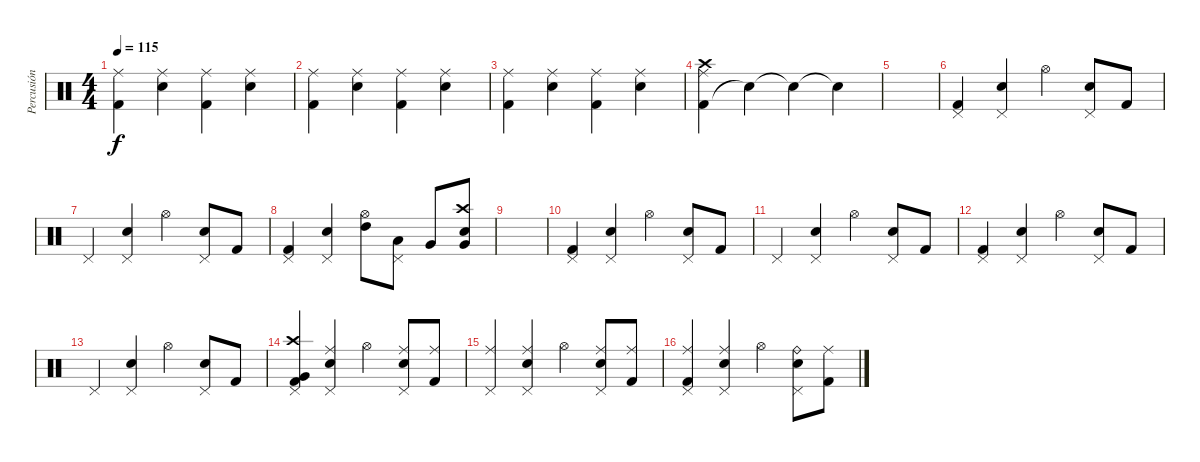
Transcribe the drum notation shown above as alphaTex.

\track ("Percusión" "Percusión") {instrument percussion}
\staff {score}
\articulation defaults
\ts (4 4)
\tempo 115
\clef neutral
\ks c
("Kick (hit) 2" "Ride (middle)").4{dy f} ("Snare (hit) 2" "Ride (middle)").4 ("Kick (hit) 2" "Ride (middle)").4 ("Snare (hit) 2" "Ride (middle)").4 |
("Kick (hit) 2" "Ride (middle)").4 ("Snare (hit) 2" "Ride (middle)").4 ("Kick (hit) 2" "Ride (middle)").4 ("Snare (hit) 2" "Ride (middle)").4 |
("Kick (hit) 2" "Ride (middle)").4 ("Snare (hit) 2" "Ride (middle)").4 ("Kick (hit) 2" "Ride (middle)").4 ("Snare (hit) 2" "Ride (middle)").4 |
("Kick (hit) 2" "Ride (middle)" "Crash high (hit)").4 "Snare (hit)"{t}.4 "Snare (hit)"{t}.4 "Snare (hit)"{t}.4 |
|
("Kick (hit) 2" "Pedal Hi-Hat (hit)").4 ("Snare (hit) 2" "Pedal Hi-Hat (hit)").4 "Hi-Hat (open)".4 ("Snare (hit) 2" "Pedal Hi-Hat (hit)").8 "Kick (hit) 2".8 |
"Pedal Hi-Hat (hit)".4 ("Snare (hit) 2" "Pedal Hi-Hat (hit)").4 "Hi-Hat (open)".4 ("Snare (hit) 2" "Pedal Hi-Hat (hit)").8 "Kick (hit) 2".8 |
("Kick (hit) 2" "Pedal Hi-Hat (hit)").4 ("Snare (hit) 2" "Pedal Hi-Hat (hit)").4 ("High Tom (hit)" "Hi-Hat (open)").8 ("Low Tom (hit)" "Pedal Hi-Hat (hit)").8 "Very Low Tom (hit)".8 ("Crash high (hit)" "Very Low Tom (hit)" "Snare (hit) 2").8 |
|
("Kick (hit) 2" "Pedal Hi-Hat (hit)").4 ("Snare (hit) 2" "Pedal Hi-Hat (hit)").4 "Hi-Hat (open)".4 ("Snare (hit) 2" "Pedal Hi-Hat (hit)").8 "Kick (hit) 2".8 |
"Pedal Hi-Hat (hit)".4 ("Snare (hit) 2" "Pedal Hi-Hat (hit)").4 "Hi-Hat (open)".4 ("Snare (hit) 2" "Pedal Hi-Hat (hit)").8 "Kick (hit) 2".8 |
("Kick (hit) 2" "Pedal Hi-Hat (hit)").4 ("Snare (hit) 2" "Pedal Hi-Hat (hit)").4 "Hi-Hat (open)".4 ("Snare (hit) 2" "Pedal Hi-Hat (hit)").8 "Kick (hit) 2".8 |
"Pedal Hi-Hat (hit)".4 ("Snare (hit) 2" "Pedal Hi-Hat (hit)").4 "Hi-Hat (open)".4 ("Snare (hit) 2" "Pedal Hi-Hat (hit)").8 "Kick (hit) 2".8 |
("Kick (hit) 2" "Very Low Tom (hit)" "Pedal Hi-Hat (hit)" "Crash high (hit)").4 ("Snare (hit) 2" "Pedal Hi-Hat (hit)" "Ride (middle)").4 "Hi-Hat (open)".4 ("Snare (hit) 2" "Pedal Hi-Hat (hit)" "Ride (middle)").8 ("Kick (hit) 2" "Ride (middle)").8 |
("Pedal Hi-Hat (hit)" "Ride (middle)").4 ("Snare (hit) 2" "Pedal Hi-Hat (hit)" "Ride (middle)").4 "Hi-Hat (open)".4 ("Snare (hit) 2" "Pedal Hi-Hat (hit)" "Ride (middle)").8 ("Kick (hit) 2" "Ride (middle)").8 |
("Kick (hit) 2" "Pedal Hi-Hat (hit)" "Ride (middle)").4 ("Snare (hit) 2" "Pedal Hi-Hat (hit)" "Ride (middle)").4 "Hi-Hat (open)".4 ("Snare (hit) 2" "Pedal Hi-Hat (hit)" "Ride (bell)").8 ("Kick (hit) 2" "Ride (middle)").8
